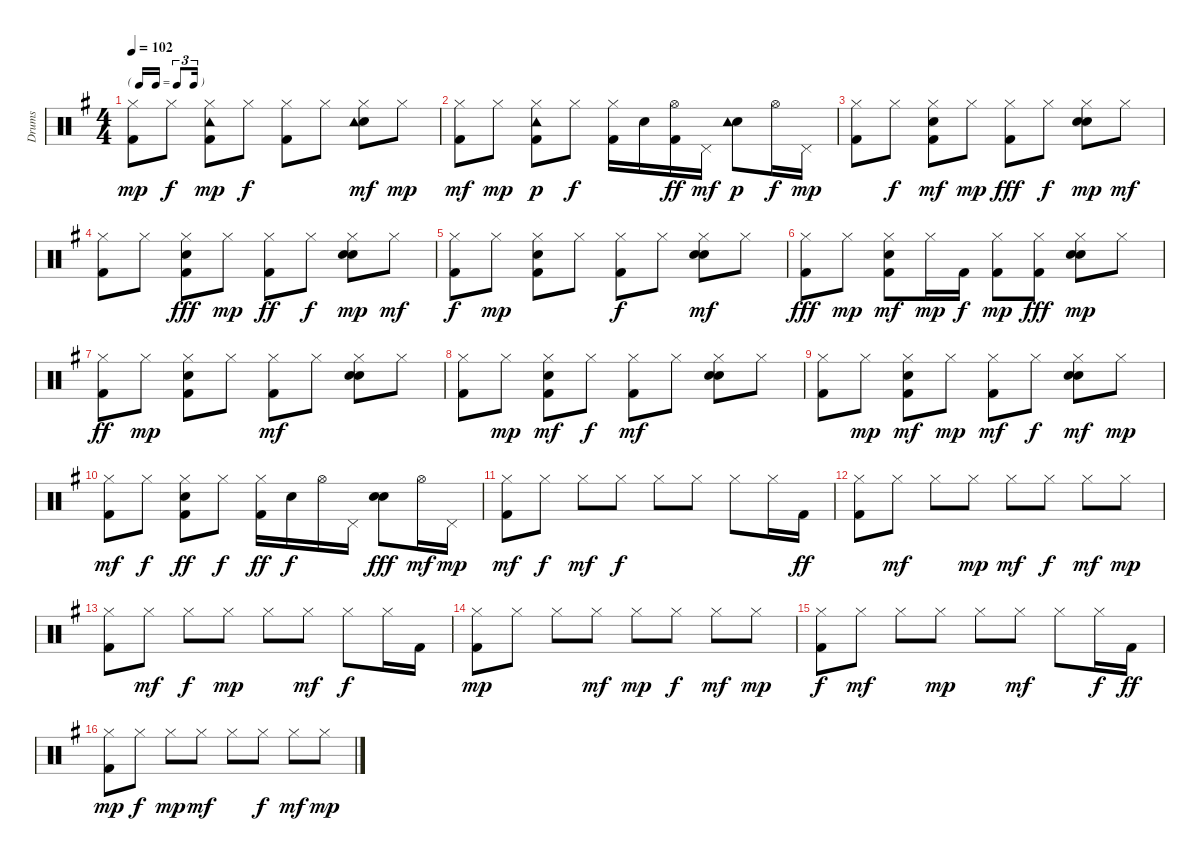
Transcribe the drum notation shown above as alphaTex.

\track ("Drums" "Drums") {instrument percussion}
\staff {score}
\articulation defaults
\ts (4 4)
\tf triplet16th
\tempo 102
\clef neutral
\ks g
("Kick (hit) 2" "Hi-Hat (closed)").8{dy mp} "Hi-Hat (closed)".8{dy f} ("Kick (hit) 2" "Hi-Hat (closed)" "Tambourine (hit)").8{dy mp} "Hi-Hat (closed)".8{dy f} ("Kick (hit) 2" "Hi-Hat (closed)").8 "Hi-Hat (closed)".8 ("Snare (hit) 2" "Hi-Hat (closed)" "Tambourine (hit)").8{dy mf} "Hi-Hat (closed)".8{dy mp} |
("Kick (hit) 2" "Hi-Hat (closed)").8{dy mf} "Hi-Hat (closed)".8{dy mp} ("Kick (hit) 2" "Hi-Hat (closed)" "Tambourine (hit)").8{dy p} "Hi-Hat (closed)".8{dy f} ("Kick (hit) 2" "Hi-Hat (closed)").16 "Snare (hit) 2".16 ("Kick (hit) 2" "Hi-Hat (open)").16{dy ff} "Pedal Hi-Hat (hit)".16{dy mf} ("Snare (hit) 2" "Tambourine (hit)").8{dy p} "Hi-Hat (open)".16{dy f} "Pedal Hi-Hat (hit)".16{dy mp} |
("Kick (hit) 2" "Hi-Hat (closed)").8 "Hi-Hat (closed)".8{dy f} ("Kick (hit) 2" "Hand Clap (hit)" "Hi-Hat (closed)").8{dy mf} "Hi-Hat (closed)".8{dy mp} ("Kick (hit) 2" "Hi-Hat (closed)").8{dy fff} "Hi-Hat (closed)".8{dy f} ("Hand Clap (hit)" "Snare (hit) 2" "Hi-Hat (closed)").8{dy mp} "Hi-Hat (closed)".8{dy mf} |
("Kick (hit) 2" "Hi-Hat (closed)").8 "Hi-Hat (closed)".8 ("Kick (hit) 2" "Hand Clap (hit)" "Hi-Hat (closed)").8{dy fff} "Hi-Hat (closed)".8{dy mp} ("Kick (hit) 2" "Hi-Hat (closed)").8{dy ff} "Hi-Hat (closed)".8{dy f} ("Hand Clap (hit)" "Snare (hit) 2" "Hi-Hat (closed)").8{dy mp} "Hi-Hat (closed)".8{dy mf} |
("Kick (hit) 2" "Hi-Hat (closed)").8{dy f} "Hi-Hat (closed)".8{dy mp} ("Kick (hit) 2" "Hand Clap (hit)" "Hi-Hat (closed)").8 "Hi-Hat (closed)".8 ("Kick (hit) 2" "Hi-Hat (closed)").8{dy f} "Hi-Hat (closed)".8 ("Hand Clap (hit)" "Snare (hit) 2" "Hi-Hat (closed)").8{dy mf} "Hi-Hat (closed)".8 |
("Kick (hit) 2" "Hi-Hat (closed)").8{dy fff} "Hi-Hat (closed)".8{dy mp} ("Kick (hit) 2" "Hand Clap (hit)" "Hi-Hat (closed)").8{dy mf} "Hi-Hat (closed)".16{dy mp} "Kick (hit) 2".16{dy f} ("Kick (hit) 2" "Hi-Hat (closed)").8{dy mp} ("Kick (hit) 2" "Hi-Hat (closed)").8{dy fff} ("Hand Clap (hit)" "Snare (hit) 2" "Hi-Hat (closed)").8{dy mp} "Hi-Hat (closed)".8 |
("Kick (hit) 2" "Hi-Hat (closed)").8{dy ff} "Hi-Hat (closed)".8{dy mp} ("Kick (hit) 2" "Hand Clap (hit)" "Hi-Hat (closed)").8 "Hi-Hat (closed)".8 ("Kick (hit) 2" "Hi-Hat (closed)").8{dy mf} "Hi-Hat (closed)".8 ("Hand Clap (hit)" "Snare (hit) 2" "Hi-Hat (closed)").8 "Hi-Hat (closed)".8 |
("Kick (hit) 2" "Hi-Hat (closed)").8 "Hi-Hat (closed)".8{dy mp} ("Kick (hit) 2" "Hand Clap (hit)" "Hi-Hat (closed)").8{dy mf} "Hi-Hat (closed)".8{dy f} ("Kick (hit) 2" "Hi-Hat (closed)").8{dy mf} "Hi-Hat (closed)".8 ("Hand Clap (hit)" "Snare (hit) 2" "Hi-Hat (closed)").8 "Hi-Hat (closed)".8 |
("Kick (hit) 2" "Hi-Hat (closed)").8 "Hi-Hat (closed)".8{dy mp} ("Kick (hit) 2" "Hand Clap (hit)" "Hi-Hat (closed)").8{dy mf} "Hi-Hat (closed)".8{dy mp} ("Kick (hit) 2" "Hi-Hat (closed)").8{dy mf} "Hi-Hat (closed)".8{dy f} ("Hand Clap (hit)" "Snare (hit) 2" "Hi-Hat (closed)").8{dy mf} "Hi-Hat (closed)".8{dy mp} |
("Kick (hit) 2" "Hi-Hat (closed)").8{dy mf} "Hi-Hat (closed)".8{dy f} ("Kick (hit) 2" "Hand Clap (hit)" "Hi-Hat (closed)").8{dy ff} "Hi-Hat (closed)".8{dy f} ("Kick (hit) 2" "Hi-Hat (closed)").16{dy ff} "Snare (hit) 2".16{dy f} "Hi-Hat (open)".16 "Pedal Hi-Hat (hit)".16 ("Hand Clap (hit)" "Snare (hit) 2").8{dy fff} "Hi-Hat (open)".16{dy mf} "Pedal Hi-Hat (hit)".16{dy mp} |
("Kick (hit) 2" "Hi-Hat (closed)").8{dy mf} "Hi-Hat (closed)".8{dy f} "Hi-Hat (closed)".8{dy mf} "Hi-Hat (closed)".8{dy f} "Hi-Hat (closed)".8 "Hi-Hat (closed)".8 "Hi-Hat (closed)".8 "Hi-Hat (closed)".16 "Kick (hit) 2".16{dy ff} |
("Kick (hit) 2" "Hi-Hat (closed)").8 "Hi-Hat (closed)".8{dy mf} "Hi-Hat (closed)".8 "Hi-Hat (closed)".8{dy mp} "Hi-Hat (closed)".8{dy mf} "Hi-Hat (closed)".8{dy f} "Hi-Hat (closed)".8{dy mf} "Hi-Hat (closed)".8{dy mp} |
("Kick (hit) 2" "Hi-Hat (closed)").8 "Hi-Hat (closed)".8{dy mf} "Hi-Hat (closed)".8{dy f} "Hi-Hat (closed)".8{dy mp} "Hi-Hat (closed)".8 "Hi-Hat (closed)".8{dy mf} "Hi-Hat (closed)".8{dy f} "Hi-Hat (closed)".16 "Kick (hit) 2".16 |
("Kick (hit) 2" "Hi-Hat (closed)").8{dy mp} "Hi-Hat (closed)".8 "Hi-Hat (closed)".8 "Hi-Hat (closed)".8{dy mf} "Hi-Hat (closed)".8{dy mp} "Hi-Hat (closed)".8{dy f} "Hi-Hat (closed)".8{dy mf} "Hi-Hat (closed)".8{dy mp} |
("Kick (hit) 2" "Hi-Hat (closed)").8{dy f} "Hi-Hat (closed)".8{dy mf} "Hi-Hat (closed)".8 "Hi-Hat (closed)".8{dy mp} "Hi-Hat (closed)".8 "Hi-Hat (closed)".8{dy mf} "Hi-Hat (closed)".8 "Hi-Hat (closed)".16{dy f} "Kick (hit) 2".16{dy ff} |
("Kick (hit) 2" "Hi-Hat (closed)").8{dy mp} "Hi-Hat (closed)".8{dy f} "Hi-Hat (closed)".8{dy mp} "Hi-Hat (closed)".8{dy mf} "Hi-Hat (closed)".8 "Hi-Hat (closed)".8{dy f} "Hi-Hat (closed)".8{dy mf} "Hi-Hat (closed)".8{dy mp}
